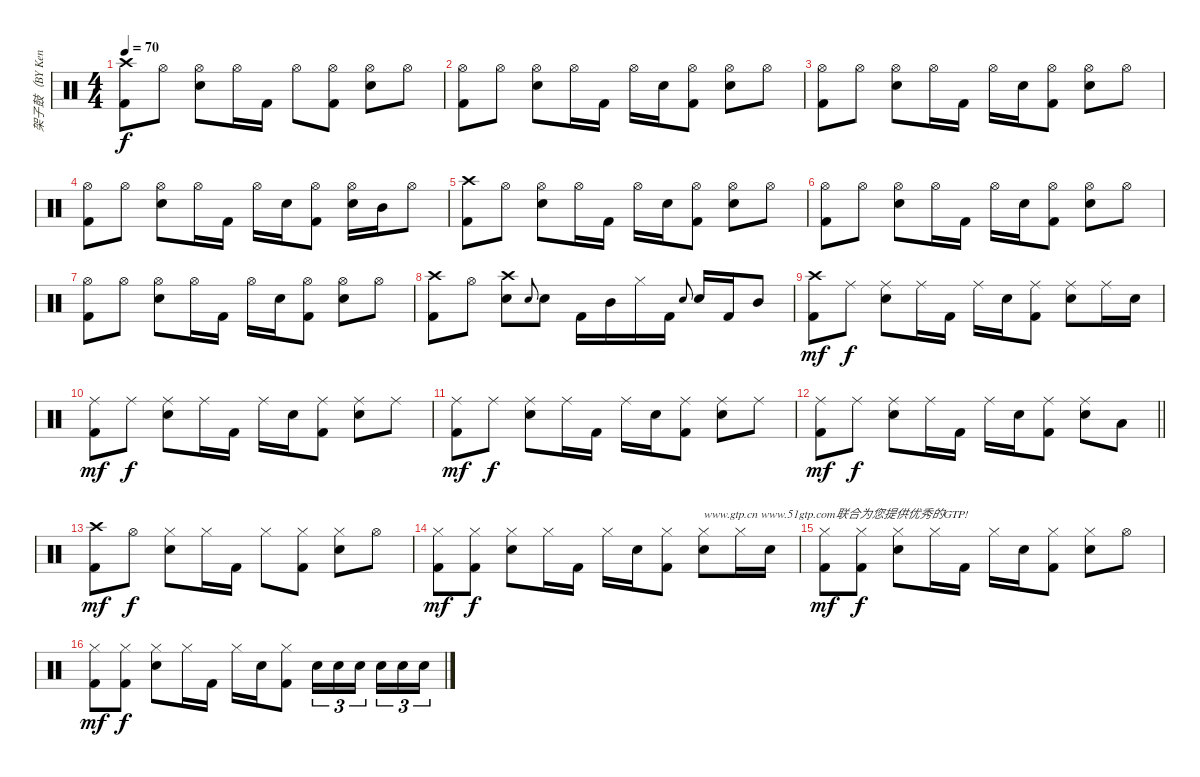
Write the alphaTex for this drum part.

\track ("架子鼓（BY Ken）" "架子鼓（BY Ken") {instrument percussion}
\staff {score}
\articulation defaults
\ts (4 4)
\tempo 70
\clef neutral
\ks c
("Crash high (hit)" "Kick (hit) 2").8{dy f} "Hi-Hat (open)".8 ("Hi-Hat (open)" "Electric Snare (hit)").8 "Hi-Hat (open)".16 "Kick (hit) 2".16 "Hi-Hat (open)".8 ("Hi-Hat (open)" "Kick (hit) 2").8 ("Hi-Hat (open)" "Electric Snare (hit)").8 "Hi-Hat (open)".8 |
("Hi-Hat (open)" "Kick (hit) 2").8 "Hi-Hat (open)".8 ("Hi-Hat (open)" "Electric Snare (hit)").8 "Hi-Hat (open)".16 "Kick (hit) 2".16 "Hi-Hat (open)".16 "Electric Snare (hit)".16 ("Hi-Hat (open)" "Kick (hit) 2").8 ("Hi-Hat (open)" "Electric Snare (hit)").8 "Hi-Hat (open)".8 |
("Hi-Hat (open)" "Kick (hit) 2").8 "Hi-Hat (open)".8 ("Hi-Hat (open)" "Electric Snare (hit)").8 "Hi-Hat (open)".16 "Kick (hit) 2".16 "Hi-Hat (open)".16 "Electric Snare (hit)".16 ("Hi-Hat (open)" "Kick (hit) 2").8 ("Hi-Hat (open)" "Electric Snare (hit)").8 "Hi-Hat (open)".8 |
("Hi-Hat (open)" "Kick (hit) 2").8 "Hi-Hat (open)".8 ("Hi-Hat (open)" "Electric Snare (hit)").8 "Hi-Hat (open)".16 "Kick (hit) 2".16 "Hi-Hat (open)".16 "Electric Snare (hit)".16 ("Hi-Hat (open)" "Kick (hit) 2").8 ("Hi-Hat (open)" "Electric Snare (hit)").16 "Mid Tom (hit)".16 "Hi-Hat (open)".8 |
("Crash high (hit)" "Kick (hit) 2").8 "Hi-Hat (open)".8 ("Hi-Hat (open)" "Electric Snare (hit)").8 "Hi-Hat (open)".16 "Kick (hit) 2".16 "Hi-Hat (open)".16 "Electric Snare (hit)".16 ("Hi-Hat (open)" "Kick (hit) 2").8 ("Hi-Hat (open)" "Electric Snare (hit)").8 "Hi-Hat (open)".8 |
("Hi-Hat (open)" "Kick (hit) 2").8 "Hi-Hat (open)".8 ("Hi-Hat (open)" "Electric Snare (hit)").8 "Hi-Hat (open)".16 "Kick (hit) 2".16 "Hi-Hat (open)".16 "Electric Snare (hit)".16 ("Hi-Hat (open)" "Kick (hit) 2").8 ("Hi-Hat (open)" "Electric Snare (hit)").8 "Hi-Hat (open)".8 |
("Hi-Hat (open)" "Kick (hit) 2").8 "Hi-Hat (open)".8 ("Hi-Hat (open)" "Electric Snare (hit)").8 "Hi-Hat (open)".16 "Kick (hit) 2".16 "Hi-Hat (open)".16 "Electric Snare (hit)".16 ("Hi-Hat (open)" "Kick (hit) 2").8 ("Hi-Hat (open)" "Electric Snare (hit)").8 "Hi-Hat (open)".8 |
("Crash high (hit)" "Kick (hit) 2").8 "Hi-Hat (open)".8 ("Crash high (hit)" "Electric Snare (hit)").8 "Electric Snare (hit)".8{gr onbeat} "Electric Snare (hit)".8 "Kick (hit) 2".16 "Mid Tom (hit)".16 "Hi-Hat (closed)".16 "Kick (hit) 2".16 "Electric Snare (hit)".8{gr onbeat} "Electric Snare (hit)".16 "Kick (hit) 2".16 "Mid Tom (hit)".8 |
("Crash high (hit)" "Kick (hit) 2").8{dy mf} "Ride (middle)".8{dy f} ("Ride (middle)" "Electric Snare (hit)").8 "Ride (middle)".16 "Kick (hit) 2".16 "Ride (middle)".16 "Electric Snare (hit)".16 ("Ride (middle)" "Kick (hit) 2").8 ("Ride (middle)" "Electric Snare (hit)").8 "Ride (middle)".16 "Electric Snare (hit)".16 |
("Ride (middle)" "Kick (hit) 2").8{dy mf} "Ride (middle)".8{dy f} ("Ride (middle)" "Electric Snare (hit)").8 "Ride (middle)".16 "Kick (hit) 2".16 "Ride (middle)".16 "Electric Snare (hit)".16 ("Ride (middle)" "Kick (hit) 2").8 ("Ride (middle)" "Electric Snare (hit)").8 "Ride (middle)".8 |
("Ride (middle)" "Kick (hit) 2").8{dy mf} "Ride (middle)".8{dy f} ("Ride (middle)" "Electric Snare (hit)").8 "Ride (middle)".16 "Kick (hit) 2".16 "Ride (middle)".16 "Electric Snare (hit)".16 ("Ride (middle)" "Kick (hit) 2").8 ("Ride (middle)" "Electric Snare (hit)").8 "Ride (middle)".8 |
\barLineRight lightlight
("Ride (middle)" "Kick (hit) 2").8{dy mf} "Ride (middle)".8{dy f} ("Ride (middle)" "Electric Snare (hit)").8 "Ride (middle)".16 "Kick (hit) 2".16 "Ride (middle)".16 "Electric Snare (hit)".16 ("Ride (middle)" "Kick (hit) 2").8 ("Ride (middle)" "Electric Snare (hit)").8 "Low Floor Tom (hit)".8 |
\section ("" "")
("Crash high (hit)" "Kick (hit) 2").8{dy mf} "Hi-Hat (open)".8{dy f} ("Hi-Hat (closed)" "Electric Snare (hit)").8 "Hi-Hat (closed)".16 "Kick (hit) 2".16 "Hi-Hat (closed)".8 ("Hi-Hat (closed)" "Kick (hit) 2").8 ("Hi-Hat (closed)" "Electric Snare (hit)").8 "Hi-Hat (open)".8 |
("Hi-Hat (closed)" "Kick (hit) 2").8{dy mf} ("Hi-Hat (closed)" "Kick (hit) 2").8{dy f} ("Hi-Hat (closed)" "Electric Snare (hit)").8 "Hi-Hat (closed)".16 "Kick (hit) 2".16 "Hi-Hat (closed)".16 "Electric Snare (hit)".16 ("Hi-Hat (closed)" "Kick (hit) 2").8 ("Hi-Hat (closed)" "Electric Snare (hit)").8{txt "www.gtp.cn www.51gtp.com联合为您提供优秀的GTP!"} "Hi-Hat (closed)".16 "Electric Snare (hit)".16 |
("Hi-Hat (closed)" "Kick (hit) 2").8{dy mf} ("Hi-Hat (closed)" "Kick (hit) 2").8{dy f} ("Hi-Hat (closed)" "Electric Snare (hit)").8 "Hi-Hat (closed)".16 "Kick (hit) 2".16 "Hi-Hat (closed)".16 "Electric Snare (hit)".16 ("Hi-Hat (closed)" "Kick (hit) 2").8 ("Hi-Hat (closed)" "Electric Snare (hit)").8 "Hi-Hat (open)".8 |
("Hi-Hat (closed)" "Kick (hit) 2").8{dy mf} ("Hi-Hat (closed)" "Kick (hit) 2").8{dy f} ("Hi-Hat (closed)" "Electric Snare (hit)").8 "Hi-Hat (closed)".16 "Kick (hit) 2".16 "Hi-Hat (closed)".16 "Electric Snare (hit)".16 ("Hi-Hat (closed)" "Kick (hit) 2").8 "Electric Snare (hit)".16{tu (3 2)} "Electric Snare (hit)".16{tu (3 2)} "Electric Snare (hit)".16{tu (3 2) beam splitsecondary} "Electric Snare (hit)".16{tu (3 2)} "Electric Snare (hit)".16{tu (3 2)} "Electric Snare (hit)".16{tu (3 2)}
